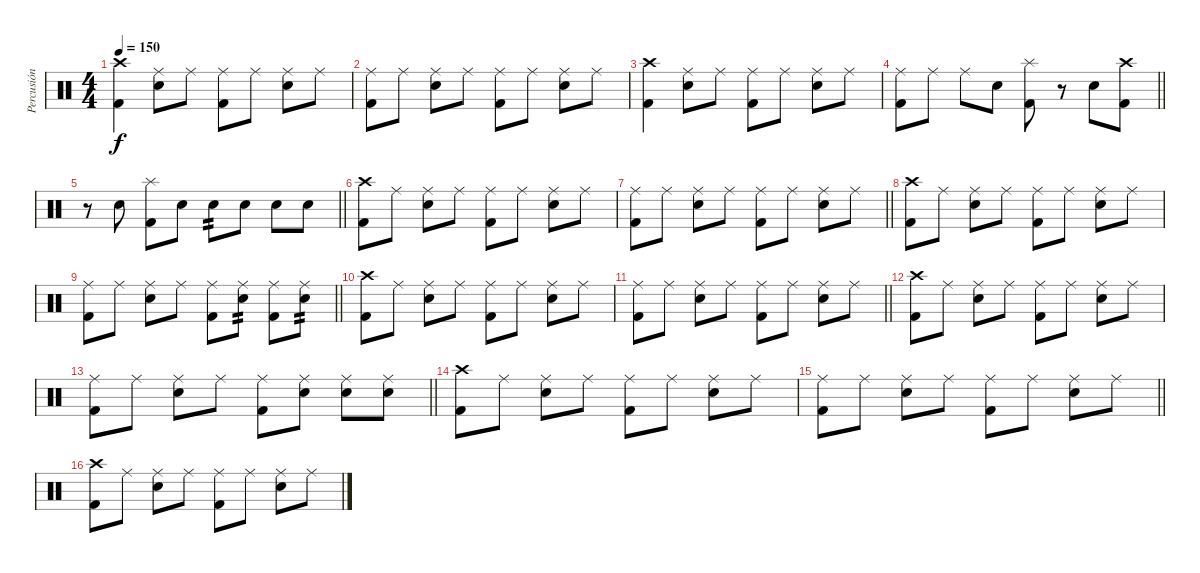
\track ("Percusión" "Percusión") {instrument percussion}
\staff {score}
\articulation defaults
\ts (4 4)
\tempo 150
\clef neutral
\ks c
("Crash high (hit)" "Kick (hit) 2").4{dy f} ("Ride (middle)" "Snare (hit) 2").8 "Ride (middle)".8 ("Ride (middle)" "Kick (hit) 2").8 "Ride (middle)".8 ("Ride (middle)" "Snare (hit) 2").8 "Ride (middle)".8 |
("Ride (middle)" "Kick (hit) 2").8 "Ride (middle)".8 ("Ride (middle)" "Snare (hit) 2").8 "Ride (middle)".8 ("Ride (middle)" "Kick (hit) 2").8 "Ride (middle)".8 ("Ride (middle)" "Snare (hit) 2").8 "Ride (middle)".8 |
("Crash high (hit)" "Kick (hit) 2").4 ("Ride (middle)" "Snare (hit) 2").8 "Ride (middle)".8 ("Ride (middle)" "Kick (hit) 2").8 "Ride (middle)".8 ("Ride (middle)" "Snare (hit) 2").8 "Ride (middle)".8 |
\barLineRight lightlight
("Ride (middle)" "Kick (hit) 2").8 "Ride (middle)".8 "Ride (middle)".8 "Snare (hit) 2".8 ("Splash (hit)" "Kick (hit) 2").8 r.8 "Snare (hit) 2".8 ("Crash high (hit)" "Kick (hit) 2").8 |
\barLineRight lightlight
r.8 "Snare (hit) 2".8 ("Splash (hit)" "Kick (hit) 2").8 "Snare (hit) 2".8 "Snare (hit) 2".8{tp 2} "Snare (hit) 2".8 "Snare (hit) 2".8 "Snare (hit) 2".8 |
("Crash high (hit)" "Kick (hit) 2").8 "Ride (middle)".8 ("Ride (middle)" "Snare (hit) 2").8 "Ride (middle)".8 ("Ride (middle)" "Kick (hit) 2").8 "Ride (middle)".8 ("Ride (middle)" "Snare (hit) 2").8 "Ride (middle)".8 |
\barLineRight lightlight
("Ride (middle)" "Kick (hit) 2").8 "Ride (middle)".8 ("Ride (middle)" "Snare (hit) 2").8 "Ride (middle)".8 ("Ride (middle)" "Kick (hit) 2").8 "Ride (middle)".8 ("Ride (middle)" "Snare (hit) 2").8 "Ride (middle)".8 |
("Crash high (hit)" "Kick (hit) 2").8 "Ride (middle)".8 ("Ride (middle)" "Snare (hit) 2").8 "Ride (middle)".8 ("Ride (middle)" "Kick (hit) 2").8 "Ride (middle)".8 ("Ride (middle)" "Snare (hit) 2").8 "Ride (middle)".8 |
\barLineRight lightlight
("Ride (middle)" "Kick (hit) 2").8 "Ride (middle)".8 ("Ride (middle)" "Snare (hit) 2").8 "Ride (middle)".8 ("Ride (middle)" "Kick (hit) 2").8 ("Ride (middle)" "Snare (hit) 2").8{tp 2} ("Ride (middle)" "Kick (hit) 2").8 ("Ride (middle)" "Snare (hit) 2").8{tp 2} |
("Crash high (hit)" "Kick (hit) 2").8 "Ride (middle)".8 ("Ride (middle)" "Snare (hit) 2").8 "Ride (middle)".8 ("Ride (middle)" "Kick (hit) 2").8 "Ride (middle)".8 ("Ride (middle)" "Snare (hit) 2").8 "Ride (middle)".8 |
\barLineRight lightlight
("Ride (middle)" "Kick (hit) 2").8 "Ride (middle)".8 ("Ride (middle)" "Snare (hit) 2").8 "Ride (middle)".8 ("Ride (middle)" "Kick (hit) 2").8 "Ride (middle)".8 ("Ride (middle)" "Snare (hit) 2").8 "Ride (middle)".8 |
("Crash high (hit)" "Kick (hit) 2").8 "Ride (middle)".8 ("Ride (middle)" "Snare (hit) 2").8 "Ride (middle)".8 ("Ride (middle)" "Kick (hit) 2").8 "Ride (middle)".8 ("Ride (middle)" "Snare (hit) 2").8 "Ride (middle)".8 |
\barLineRight lightlight
("Ride (middle)" "Kick (hit) 2").8 "Ride (middle)".8 ("Ride (middle)" "Snare (hit) 2").8 "Ride (middle)".8 ("Ride (middle)" "Kick (hit) 2").8 ("Ride (middle)" "Snare (hit) 2").8 ("Ride (middle)" "Snare (hit) 2").8 ("Ride (middle)" "Snare (hit) 2").8 |
("Crash high (hit)" "Kick (hit) 2").8 "Ride (middle)".8 ("Ride (middle)" "Snare (hit) 2").8 "Ride (middle)".8 ("Ride (middle)" "Kick (hit) 2").8 "Ride (middle)".8 ("Ride (middle)" "Snare (hit) 2").8 "Ride (middle)".8 |
\barLineRight lightlight
("Ride (middle)" "Kick (hit) 2").8 "Ride (middle)".8 ("Ride (middle)" "Snare (hit) 2").8 "Ride (middle)".8 ("Ride (middle)" "Kick (hit) 2").8 "Ride (middle)".8 ("Ride (middle)" "Snare (hit) 2").8 "Ride (middle)".8 |
("Crash high (hit)" "Kick (hit) 2").8 "Ride (middle)".8 ("Ride (middle)" "Snare (hit) 2").8 "Ride (middle)".8 ("Ride (middle)" "Kick (hit) 2").8 "Ride (middle)".8 ("Ride (middle)" "Snare (hit) 2").8 "Ride (middle)".8
